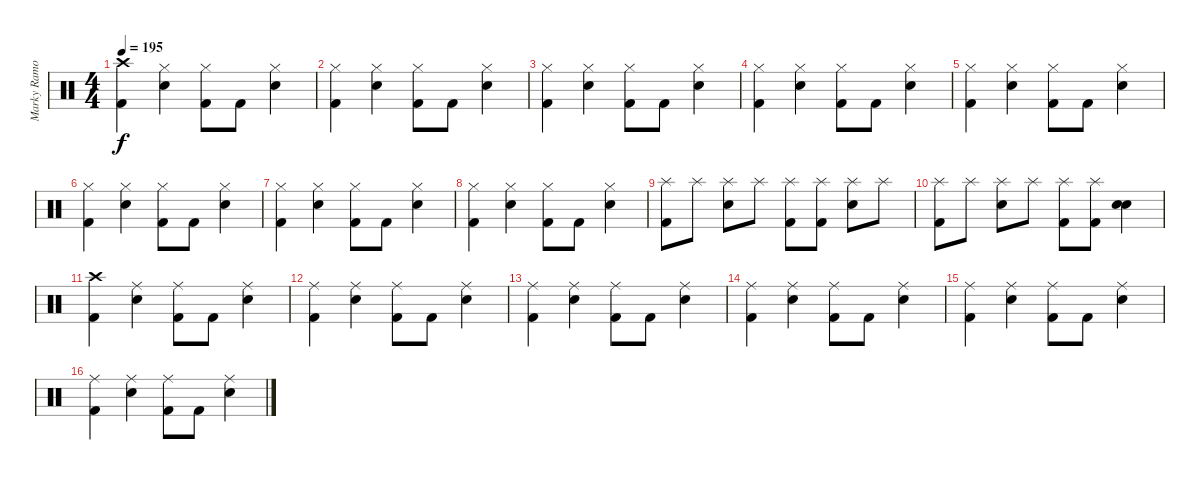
\track ("Marky Ramone" "Marky Ramo") {instrument percussion}
\staff {score}
\articulation defaults
\ts (4 4)
\tempo 195
\clef neutral
\ks c
("Crash high (hit)" "Kick (hit) 2").4{dy f} ("Hi-Hat (closed)" "Snare (hit) 2").4 ("Hi-Hat (closed)" "Kick (hit) 2").8 "Kick (hit) 2".8 ("Hi-Hat (closed)" "Snare (hit) 2").4 |
("Hi-Hat (closed)" "Kick (hit) 2").4 ("Hi-Hat (closed)" "Snare (hit) 2").4 ("Hi-Hat (closed)" "Kick (hit) 2").8 "Kick (hit) 2".8 ("Hi-Hat (closed)" "Snare (hit) 2").4 |
("Hi-Hat (closed)" "Kick (hit) 2").4 ("Hi-Hat (closed)" "Snare (hit) 2").4 ("Hi-Hat (closed)" "Kick (hit) 2").8 "Kick (hit) 2".8 ("Hi-Hat (closed)" "Snare (hit) 2").4 |
("Hi-Hat (closed)" "Kick (hit) 2").4 ("Hi-Hat (closed)" "Snare (hit) 2").4 ("Hi-Hat (closed)" "Kick (hit) 2").8 "Kick (hit) 2".8 ("Hi-Hat (closed)" "Snare (hit) 2").4 |
("Hi-Hat (closed)" "Kick (hit) 2").4 ("Hi-Hat (closed)" "Snare (hit) 2").4 ("Hi-Hat (closed)" "Kick (hit) 2").8 "Kick (hit) 2".8 ("Hi-Hat (closed)" "Snare (hit) 2").4 |
("Hi-Hat (closed)" "Kick (hit) 2").4 ("Hi-Hat (closed)" "Snare (hit) 2").4 ("Hi-Hat (closed)" "Kick (hit) 2").8 "Kick (hit) 2".8 ("Hi-Hat (closed)" "Snare (hit) 2").4 |
("Hi-Hat (closed)" "Kick (hit) 2").4 ("Hi-Hat (closed)" "Snare (hit) 2").4 ("Hi-Hat (closed)" "Kick (hit) 2").8 "Kick (hit) 2".8 ("Hi-Hat (closed)" "Snare (hit) 2").4 |
("Hi-Hat (closed)" "Kick (hit) 2").4 ("Hi-Hat (closed)" "Snare (hit) 2").4 ("Hi-Hat (closed)" "Kick (hit) 2").8 "Kick (hit) 2".8 ("Hi-Hat (closed)" "Snare (hit) 2").4 |
("Splash (hit)" "Kick (hit) 2").8 "Splash (hit)".8 ("Splash (hit)" "Snare (hit) 2").8 "Splash (hit)".8 ("Splash (hit)" "Kick (hit) 2").8 ("Splash (hit)" "Kick (hit) 2").8 ("Splash (hit)" "Snare (hit) 2").8 "Splash (hit)".8 |
("Splash (hit)" "Kick (hit) 2").8 "Splash (hit)".8 ("Splash (hit)" "Snare (hit) 2").8 "Splash (hit)".8 ("Splash (hit)" "Kick (hit) 2").8 ("Splash (hit)" "Kick (hit) 2").8 ("Snare (hit) 2" "Snare (hit) 2").4 |
("Crash high (hit)" "Kick (hit) 2").4 ("Ride (middle)" "Snare (hit) 2").4 ("Ride (middle)" "Kick (hit) 2").8 "Kick (hit) 2".8 ("Ride (middle)" "Snare (hit) 2").4 |
("Ride (middle)" "Kick (hit) 2").4 ("Ride (middle)" "Snare (hit) 2").4 ("Ride (middle)" "Kick (hit) 2").8 "Kick (hit) 2".8 ("Ride (middle)" "Snare (hit) 2").4 |
("Ride (middle)" "Kick (hit) 2").4 ("Ride (middle)" "Snare (hit) 2").4 ("Ride (middle)" "Kick (hit) 2").8 "Kick (hit) 2".8 ("Ride (middle)" "Snare (hit) 2").4 |
("Ride (middle)" "Kick (hit) 2").4 ("Ride (middle)" "Snare (hit) 2").4 ("Ride (middle)" "Kick (hit) 2").8 "Kick (hit) 2".8 ("Ride (middle)" "Snare (hit) 2").4 |
("Ride (middle)" "Kick (hit) 2").4 ("Ride (middle)" "Snare (hit) 2").4 ("Ride (middle)" "Kick (hit) 2").8 "Kick (hit) 2".8 ("Ride (middle)" "Snare (hit) 2").4 |
("Ride (middle)" "Kick (hit) 2").4 ("Ride (middle)" "Snare (hit) 2").4 ("Ride (middle)" "Kick (hit) 2").8 "Kick (hit) 2".8 ("Ride (middle)" "Snare (hit) 2").4
